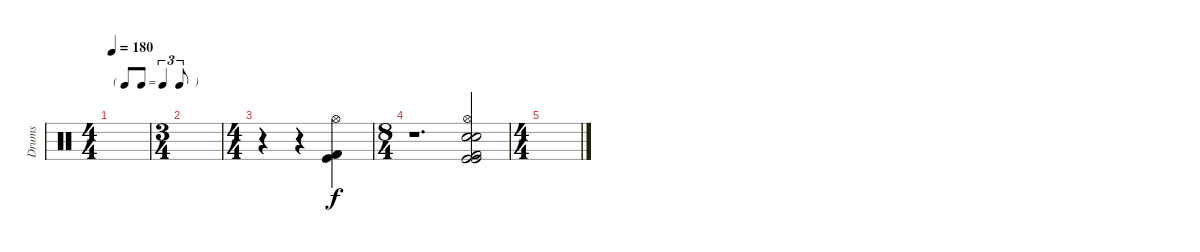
\track ("Drums" "Drums") {instrument percussion}
\staff {score}
\articulation defaults
\ts (4 4)
\tf triplet8th
\tempo 180
\clef neutral
\ks c
|
\ts (3 4)
|
\ts (4 4)
r.4 r.4 ("Kick (hit) 2" "Kick (hit)" "Hi-Hat (open)").4 |
\ts (8 4)
r.1{d} ("Kick (hit) 2" "Kick (hit)" "Kick (hit)" "Hi-Hat (open)" "Snare (hit)" "Electric Snare (hit)").2 |
\ts (4 4)
